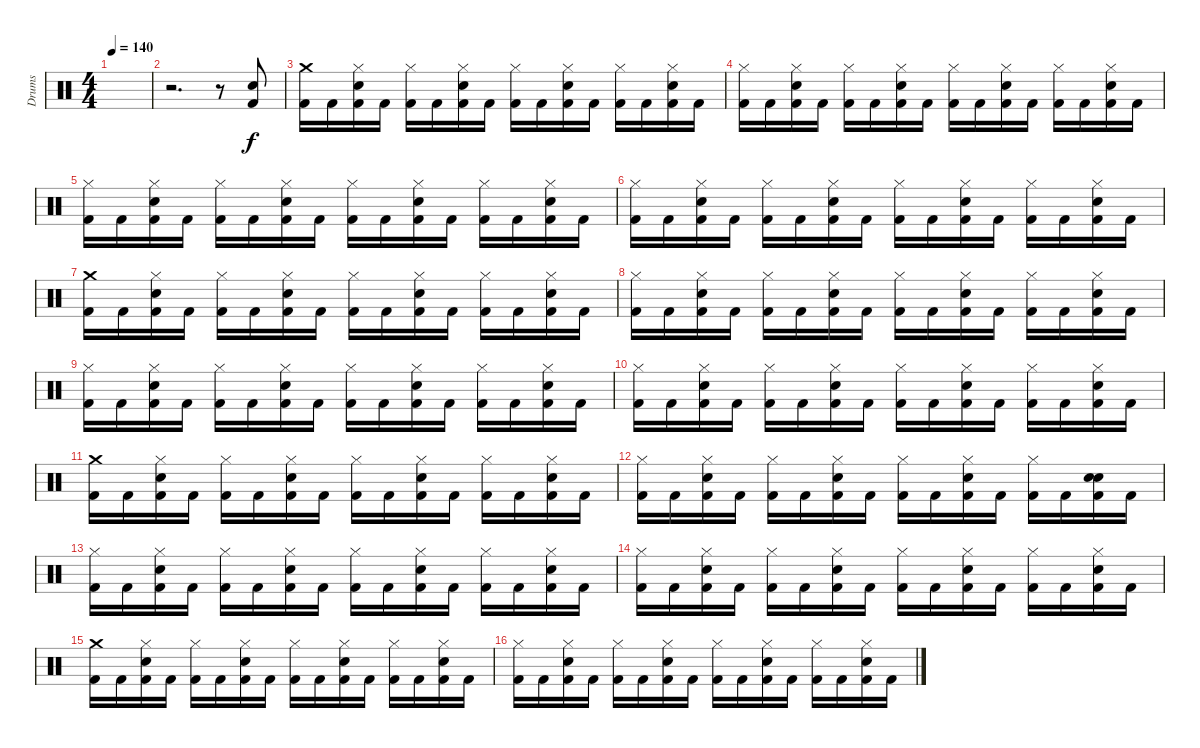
\track ("Drums" "Drums") {instrument percussion}
\staff {score}
\articulation defaults
\ts (4 4)
\tempo 140
\clef neutral
\ks c
|
r.2{d} r.8 ("Electric Snare (hit)" "Kick (hit) 2").8 |
("Crash medium (hit)" "Kick (hit) 2").16 "Kick (hit) 2".16 ("Hi-Hat (closed)" "Electric Snare (hit)" "Kick (hit) 2").16 "Kick (hit) 2".16 ("Hi-Hat (closed)" "Kick (hit) 2").16 "Kick (hit) 2".16 ("Hi-Hat (closed)" "Electric Snare (hit)" "Kick (hit) 2").16 "Kick (hit) 2".16 ("Hi-Hat (closed)" "Kick (hit) 2").16 "Kick (hit) 2".16 ("Hi-Hat (closed)" "Electric Snare (hit)" "Kick (hit) 2").16 "Kick (hit) 2".16 ("Hi-Hat (closed)" "Kick (hit) 2").16 "Kick (hit) 2".16 ("Hi-Hat (closed)" "Electric Snare (hit)" "Kick (hit) 2").16 "Kick (hit) 2".16 |
("Hi-Hat (closed)" "Kick (hit) 2").16 "Kick (hit) 2".16 ("Hi-Hat (closed)" "Electric Snare (hit)" "Kick (hit) 2").16 "Kick (hit) 2".16 ("Hi-Hat (closed)" "Kick (hit) 2").16 "Kick (hit) 2".16 ("Hi-Hat (closed)" "Electric Snare (hit)" "Kick (hit) 2").16 "Kick (hit) 2".16 ("Hi-Hat (closed)" "Kick (hit) 2").16 "Kick (hit) 2".16 ("Hi-Hat (closed)" "Electric Snare (hit)" "Kick (hit) 2").16 "Kick (hit) 2".16 ("Hi-Hat (closed)" "Kick (hit) 2").16 "Kick (hit) 2".16 ("Hi-Hat (closed)" "Electric Snare (hit)" "Kick (hit) 2").16 "Kick (hit) 2".16 |
("Hi-Hat (closed)" "Kick (hit) 2").16 "Kick (hit) 2".16 ("Hi-Hat (closed)" "Electric Snare (hit)" "Kick (hit) 2").16 "Kick (hit) 2".16 ("Hi-Hat (closed)" "Kick (hit) 2").16 "Kick (hit) 2".16 ("Hi-Hat (closed)" "Electric Snare (hit)" "Kick (hit) 2").16 "Kick (hit) 2".16 ("Hi-Hat (closed)" "Kick (hit) 2").16 "Kick (hit) 2".16 ("Hi-Hat (closed)" "Electric Snare (hit)" "Kick (hit) 2").16 "Kick (hit) 2".16 ("Hi-Hat (closed)" "Kick (hit) 2").16 "Kick (hit) 2".16 ("Hi-Hat (closed)" "Electric Snare (hit)" "Kick (hit) 2").16 "Kick (hit) 2".16 |
("Hi-Hat (closed)" "Kick (hit) 2").16 "Kick (hit) 2".16 ("Hi-Hat (closed)" "Electric Snare (hit)" "Kick (hit) 2").16 "Kick (hit) 2".16 ("Hi-Hat (closed)" "Kick (hit) 2").16 "Kick (hit) 2".16 ("Hi-Hat (closed)" "Electric Snare (hit)" "Kick (hit) 2").16 "Kick (hit) 2".16 ("Hi-Hat (closed)" "Kick (hit) 2").16 "Kick (hit) 2".16 ("Hi-Hat (closed)" "Electric Snare (hit)" "Kick (hit) 2").16 "Kick (hit) 2".16 ("Hi-Hat (closed)" "Kick (hit) 2").16 "Kick (hit) 2".16 ("Hi-Hat (closed)" "Electric Snare (hit)" "Kick (hit) 2").16 "Kick (hit) 2".16 |
("Crash medium (hit)" "Kick (hit) 2").16 "Kick (hit) 2".16 ("Hi-Hat (closed)" "Electric Snare (hit)" "Kick (hit) 2").16 "Kick (hit) 2".16 ("Hi-Hat (closed)" "Kick (hit) 2").16 "Kick (hit) 2".16 ("Hi-Hat (closed)" "Electric Snare (hit)" "Kick (hit) 2").16 "Kick (hit) 2".16 ("Hi-Hat (closed)" "Kick (hit) 2").16 "Kick (hit) 2".16 ("Hi-Hat (closed)" "Electric Snare (hit)" "Kick (hit) 2").16 "Kick (hit) 2".16 ("Hi-Hat (closed)" "Kick (hit) 2").16 "Kick (hit) 2".16 ("Hi-Hat (closed)" "Electric Snare (hit)" "Kick (hit) 2").16 "Kick (hit) 2".16 |
("Hi-Hat (closed)" "Kick (hit) 2").16 "Kick (hit) 2".16 ("Hi-Hat (closed)" "Electric Snare (hit)" "Kick (hit) 2").16 "Kick (hit) 2".16 ("Hi-Hat (closed)" "Kick (hit) 2").16 "Kick (hit) 2".16 ("Hi-Hat (closed)" "Electric Snare (hit)" "Kick (hit) 2").16 "Kick (hit) 2".16 ("Hi-Hat (closed)" "Kick (hit) 2").16 "Kick (hit) 2".16 ("Hi-Hat (closed)" "Electric Snare (hit)" "Kick (hit) 2").16 "Kick (hit) 2".16 ("Hi-Hat (closed)" "Kick (hit) 2").16 "Kick (hit) 2".16 ("Hi-Hat (closed)" "Electric Snare (hit)" "Kick (hit) 2").16 "Kick (hit) 2".16 |
("Hi-Hat (closed)" "Kick (hit) 2").16 "Kick (hit) 2".16 ("Hi-Hat (closed)" "Electric Snare (hit)" "Kick (hit) 2").16 "Kick (hit) 2".16 ("Hi-Hat (closed)" "Kick (hit) 2").16 "Kick (hit) 2".16 ("Hi-Hat (closed)" "Electric Snare (hit)" "Kick (hit) 2").16 "Kick (hit) 2".16 ("Hi-Hat (closed)" "Kick (hit) 2").16 "Kick (hit) 2".16 ("Hi-Hat (closed)" "Electric Snare (hit)" "Kick (hit) 2").16 "Kick (hit) 2".16 ("Hi-Hat (closed)" "Kick (hit) 2").16 "Kick (hit) 2".16 ("Hi-Hat (closed)" "Electric Snare (hit)" "Kick (hit) 2").16 "Kick (hit) 2".16 |
("Hi-Hat (closed)" "Kick (hit) 2").16 "Kick (hit) 2".16 ("Hi-Hat (closed)" "Electric Snare (hit)" "Kick (hit) 2").16 "Kick (hit) 2".16 ("Hi-Hat (closed)" "Kick (hit) 2").16 "Kick (hit) 2".16 ("Hi-Hat (closed)" "Electric Snare (hit)" "Kick (hit) 2").16 "Kick (hit) 2".16 ("Hi-Hat (closed)" "Kick (hit) 2").16 "Kick (hit) 2".16 ("Hi-Hat (closed)" "Electric Snare (hit)" "Kick (hit) 2").16 "Kick (hit) 2".16 ("Hi-Hat (closed)" "Kick (hit) 2").16 "Kick (hit) 2".16 ("Hi-Hat (closed)" "Electric Snare (hit)" "Kick (hit) 2").16 "Kick (hit) 2".16 |
("Crash medium (hit)" "Kick (hit) 2").16 "Kick (hit) 2".16 ("Hi-Hat (closed)" "Electric Snare (hit)" "Kick (hit) 2").16 "Kick (hit) 2".16 ("Hi-Hat (closed)" "Kick (hit) 2").16 "Kick (hit) 2".16 ("Hi-Hat (closed)" "Electric Snare (hit)" "Kick (hit) 2").16 "Kick (hit) 2".16 ("Hi-Hat (closed)" "Kick (hit) 2").16 "Kick (hit) 2".16 ("Hi-Hat (closed)" "Electric Snare (hit)" "Kick (hit) 2").16 "Kick (hit) 2".16 ("Hi-Hat (closed)" "Kick (hit) 2").16 "Kick (hit) 2".16 ("Hi-Hat (closed)" "Electric Snare (hit)" "Kick (hit) 2").16 "Kick (hit) 2".16 |
("Hi-Hat (closed)" "Kick (hit) 2").16 "Kick (hit) 2".16 ("Hi-Hat (closed)" "Electric Snare (hit)" "Kick (hit) 2").16 "Kick (hit) 2".16 ("Hi-Hat (closed)" "Kick (hit) 2").16 "Kick (hit) 2".16 ("Hi-Hat (closed)" "Electric Snare (hit)" "Kick (hit) 2").16 "Kick (hit) 2".16 ("Hi-Hat (closed)" "Kick (hit) 2").16 "Kick (hit) 2".16 ("Hi-Hat (closed)" "Electric Snare (hit)" "Kick (hit) 2").16 "Kick (hit) 2".16 ("Hi-Hat (closed)" "Kick (hit) 2").16 "Kick (hit) 2".16 ("Snare (hit)" "Electric Snare (hit)" "Kick (hit) 2").16 "Kick (hit) 2".16 |
("Hi-Hat (closed)" "Kick (hit) 2").16 "Kick (hit) 2".16 ("Hi-Hat (closed)" "Electric Snare (hit)" "Kick (hit) 2").16 "Kick (hit) 2".16 ("Hi-Hat (closed)" "Kick (hit) 2").16 "Kick (hit) 2".16 ("Hi-Hat (closed)" "Electric Snare (hit)" "Kick (hit) 2").16 "Kick (hit) 2".16 ("Hi-Hat (closed)" "Kick (hit) 2").16 "Kick (hit) 2".16 ("Hi-Hat (closed)" "Electric Snare (hit)" "Kick (hit) 2").16 "Kick (hit) 2".16 ("Hi-Hat (closed)" "Kick (hit) 2").16 "Kick (hit) 2".16 ("Hi-Hat (closed)" "Electric Snare (hit)" "Kick (hit) 2").16 "Kick (hit) 2".16 |
("Hi-Hat (closed)" "Kick (hit) 2").16 "Kick (hit) 2".16 ("Hi-Hat (closed)" "Electric Snare (hit)" "Kick (hit) 2").16 "Kick (hit) 2".16 ("Hi-Hat (closed)" "Kick (hit) 2").16 "Kick (hit) 2".16 ("Hi-Hat (closed)" "Electric Snare (hit)" "Kick (hit) 2").16 "Kick (hit) 2".16 ("Hi-Hat (closed)" "Kick (hit) 2").16 "Kick (hit) 2".16 ("Hi-Hat (closed)" "Electric Snare (hit)" "Kick (hit) 2").16 "Kick (hit) 2".16 ("Hi-Hat (closed)" "Kick (hit) 2").16 "Kick (hit) 2".16 ("Hi-Hat (closed)" "Electric Snare (hit)" "Kick (hit) 2").16 "Kick (hit) 2".16 |
("Crash medium (hit)" "Kick (hit) 2").16 "Kick (hit) 2".16 ("Hi-Hat (closed)" "Electric Snare (hit)" "Kick (hit) 2").16 "Kick (hit) 2".16 ("Hi-Hat (closed)" "Kick (hit) 2").16 "Kick (hit) 2".16 ("Hi-Hat (closed)" "Electric Snare (hit)" "Kick (hit) 2").16 "Kick (hit) 2".16 ("Hi-Hat (closed)" "Kick (hit) 2").16 "Kick (hit) 2".16 ("Hi-Hat (closed)" "Electric Snare (hit)" "Kick (hit) 2").16 "Kick (hit) 2".16 ("Hi-Hat (closed)" "Kick (hit) 2").16 "Kick (hit) 2".16 ("Hi-Hat (closed)" "Electric Snare (hit)" "Kick (hit) 2").16 "Kick (hit) 2".16 |
("Hi-Hat (closed)" "Kick (hit) 2").16 "Kick (hit) 2".16 ("Hi-Hat (closed)" "Electric Snare (hit)" "Kick (hit) 2").16 "Kick (hit) 2".16 ("Hi-Hat (closed)" "Kick (hit) 2").16 "Kick (hit) 2".16 ("Hi-Hat (closed)" "Electric Snare (hit)" "Kick (hit) 2").16 "Kick (hit) 2".16 ("Hi-Hat (closed)" "Kick (hit) 2").16 "Kick (hit) 2".16 ("Hi-Hat (closed)" "Electric Snare (hit)" "Kick (hit) 2").16 "Kick (hit) 2".16 ("Hi-Hat (closed)" "Kick (hit) 2").16 "Kick (hit) 2".16 ("Hi-Hat (closed)" "Electric Snare (hit)" "Kick (hit) 2").16 "Kick (hit) 2".16
